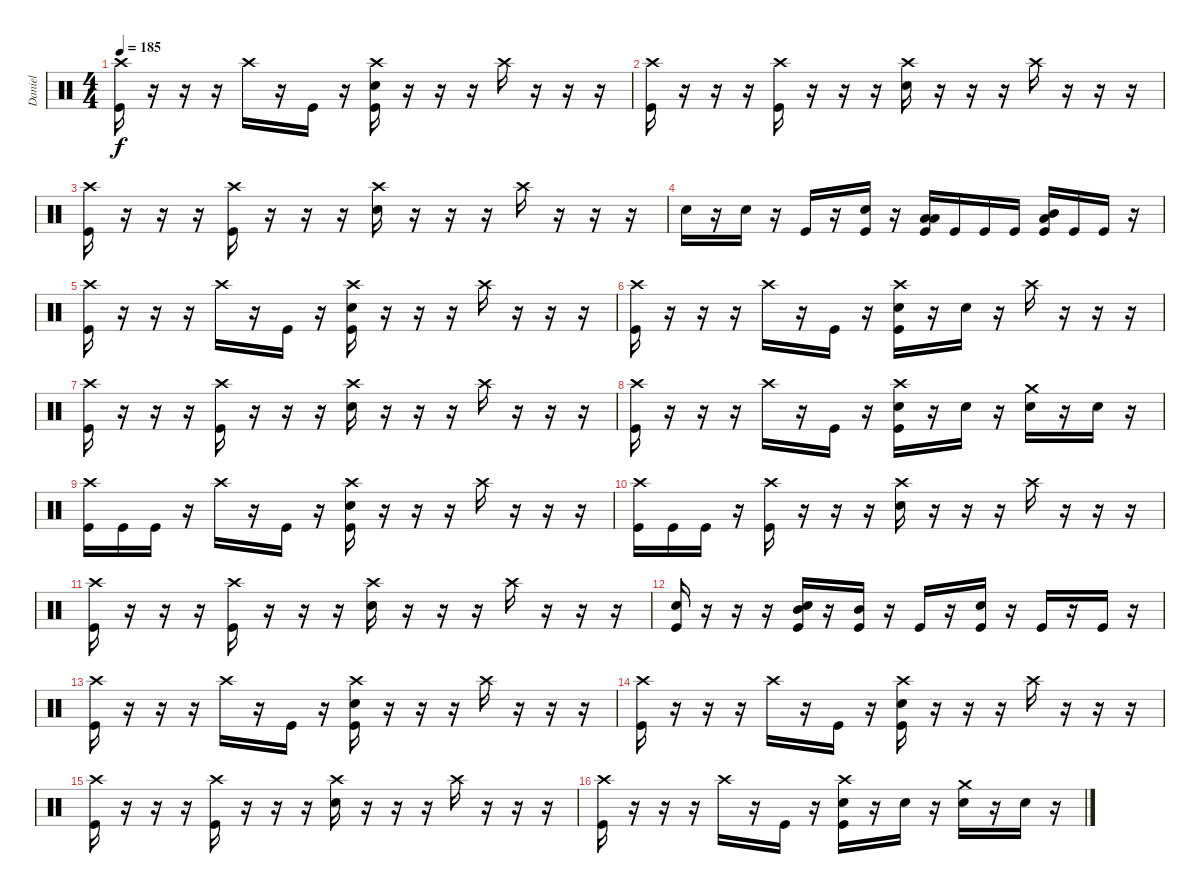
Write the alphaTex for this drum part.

\track ("Daniel" "Daniel") {instrument percussion}
\staff {score}
\articulation defaults
\ts (4 4)
\tempo 185
\clef neutral
\ks c
("Crash high (hit)" "Kick (hit)").16{dy f} r.16 r.16 r.16 "Crash high (hit)".16 r.16 "Kick (hit)".16 r.16 ("Crash high (hit)" "Snare (hit) 2" "Kick (hit)").16 r.16 r.16 r.16 "Crash high (hit)".16 r.16 r.16 r.16 |
("Crash high (hit)" "Kick (hit)").16 r.16 r.16 r.16 ("Crash high (hit)" "Kick (hit)").16 r.16 r.16 r.16 ("Crash high (hit)" "Snare (hit) 2").16 r.16 r.16 r.16 "Crash high (hit)".16 r.16 r.16 r.16 |
("Crash high (hit)" "Kick (hit)").16 r.16 r.16 r.16 ("Crash high (hit)" "Kick (hit)").16 r.16 r.16 r.16 ("Crash high (hit)" "Snare (hit) 2").16 r.16 r.16 r.16 "Crash high (hit)".16 r.16 r.16 r.16 |
"Snare (hit) 2".16 r.16 "Snare (hit) 2".16 r.16 "Kick (hit)".16 r.16 ("Snare (hit) 2" "Kick (hit)").16 r.16 ("Low Tom (hit)" "Low Floor Tom (hit)" "Kick (hit)").16 "Kick (hit)".16 "Kick (hit)".16 "Kick (hit)".16 ("Mid Tom (hit)" "Low Tom (hit)" "Kick (hit)").16 "Kick (hit)".16 "Kick (hit)".16 r.16 |
("Crash high (hit)" "Kick (hit)").16{volume 14} r.16 r.16 r.16 "Crash high (hit)".16 r.16 "Kick (hit)".16 r.16 ("Crash high (hit)" "Snare (hit) 2" "Kick (hit)").16 r.16 r.16 r.16 "Crash high (hit)".16 r.16 r.16 r.16 |
("Crash high (hit)" "Kick (hit)").16 r.16 r.16 r.16 "Crash high (hit)".16 r.16 "Kick (hit)".16 r.16 ("Crash high (hit)" "Snare (hit) 2" "Kick (hit)").16 r.16 "Snare (hit) 2".16 r.16 "Crash high (hit)".16 r.16 r.16 r.16 |
("Crash high (hit)" "Kick (hit)").16 r.16 r.16 r.16 ("Crash high (hit)" "Kick (hit)").16 r.16 r.16 r.16 ("Crash high (hit)" "Snare (hit) 2").16 r.16 r.16 r.16 "Crash high (hit)".16 r.16 r.16 r.16 |
("Crash high (hit)" "Kick (hit)").16 r.16 r.16 r.16 "Crash high (hit)".16 r.16 "Kick (hit)".16 r.16 ("Crash high (hit)" "Snare (hit) 2" "Kick (hit)").16 r.16 "Snare (hit) 2".16 r.16 ("Crash medium (hit)" "Snare (hit) 2").16 r.16 "Snare (hit) 2".16 r.16 |
("Crash high (hit)" "Kick (hit)").16 "Kick (hit)".16 "Kick (hit)".16 r.16 "Crash high (hit)".16 r.16 "Kick (hit)".16 r.16 ("Crash high (hit)" "Snare (hit) 2" "Kick (hit)").16 r.16 r.16 r.16 "Crash high (hit)".16 r.16 r.16 r.16 |
("Crash high (hit)" "Kick (hit)").16 "Kick (hit)".16 "Kick (hit)".16 r.16 ("Crash high (hit)" "Kick (hit)").16 r.16 r.16 r.16 ("Crash high (hit)" "Snare (hit) 2").16 r.16 r.16 r.16 "Crash high (hit)".16 r.16 r.16 r.16 |
("Crash high (hit)" "Kick (hit)").16 r.16 r.16 r.16 ("Crash high (hit)" "Kick (hit)").16 r.16 r.16 r.16 ("Crash high (hit)" "Snare (hit) 2").16 r.16 r.16 r.16 "Crash high (hit)".16 r.16 r.16 r.16 |
("Snare (hit) 2" "Kick (hit)").16 r.16 r.16 r.16 ("Snare (hit) 2" "Mid Tom (hit)" "Kick (hit)").16 r.16 ("Mid Tom (hit)" "Kick (hit)").16 r.16 "Kick (hit)".16 r.16 ("Snare (hit) 2" "Kick (hit)").16 r.16 "Kick (hit)".16 r.16 "Kick (hit)".16 r.16 |
("Crash high (hit)" "Kick (hit)").16 r.16 r.16 r.16 "Crash high (hit)".16 r.16 "Kick (hit)".16 r.16 ("Crash high (hit)" "Snare (hit) 2" "Kick (hit)").16 r.16 r.16 r.16 "Crash high (hit)".16 r.16 r.16 r.16 |
("Crash high (hit)" "Kick (hit)").16 r.16 r.16 r.16 "Crash high (hit)".16 r.16 "Kick (hit)".16 r.16 ("Crash high (hit)" "Snare (hit) 2" "Kick (hit)").16 r.16 r.16 r.16 "Crash high (hit)".16 r.16 r.16 r.16 |
("Crash high (hit)" "Kick (hit)").16 r.16 r.16 r.16 ("Crash high (hit)" "Kick (hit)").16 r.16 r.16 r.16 ("Crash high (hit)" "Snare (hit) 2").16 r.16 r.16 r.16 "Crash high (hit)".16 r.16 r.16 r.16 |
("Crash high (hit)" "Kick (hit)").16 r.16 r.16 r.16 "Crash high (hit)".16 r.16 "Kick (hit)".16 r.16 ("Crash high (hit)" "Snare (hit) 2" "Kick (hit)").16 r.16 "Snare (hit) 2".16 r.16 ("Crash medium (hit)" "Snare (hit) 2").16 r.16 "Snare (hit) 2".16 r.16
